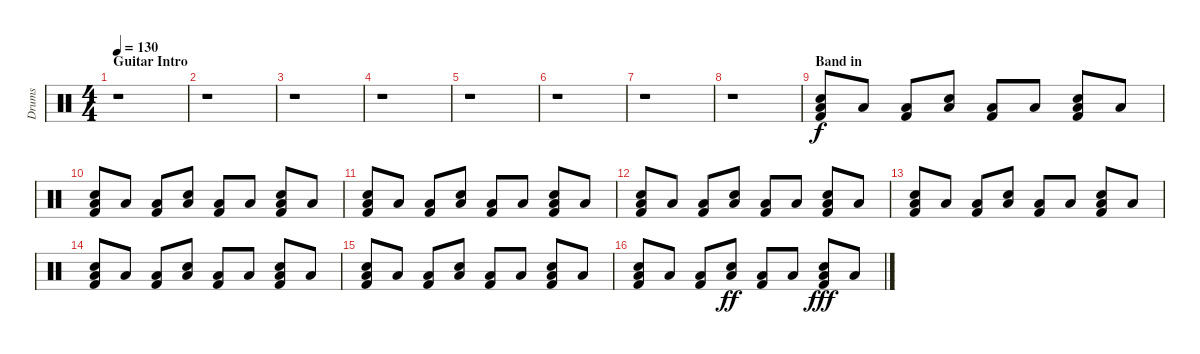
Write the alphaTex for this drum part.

\track ("Drums" "Drums") {instrument percussion}
\staff {score}
\articulation defaults
\ts (4 4)
\section ("" "Guitar Intro")
\tempo 130
\clef neutral
\ks c
r.1{dy f} |
r.1 |
r.1 |
r.1 |
r.1 |
r.1 |
r.1 |
r.1 |
\section ("" "Band in")
("Kick (hit) 2" "Low Floor Tom (hit)" "Electric Snare (hit)").8 "Low Floor Tom (hit)".8 ("Kick (hit) 2" "Low Floor Tom (hit)").8 ("Low Floor Tom (hit)" "Electric Snare (hit)").8 ("Kick (hit) 2" "Low Floor Tom (hit)").8 "Low Floor Tom (hit)".8 ("Kick (hit) 2" "Low Floor Tom (hit)" "Electric Snare (hit)").8 "Low Floor Tom (hit)".8 |
("Kick (hit) 2" "Low Floor Tom (hit)" "Electric Snare (hit)").8 "Low Floor Tom (hit)".8 ("Kick (hit) 2" "Low Floor Tom (hit)").8 ("Low Floor Tom (hit)" "Electric Snare (hit)").8 ("Kick (hit) 2" "Low Floor Tom (hit)").8 "Low Floor Tom (hit)".8 ("Kick (hit) 2" "Low Floor Tom (hit)" "Electric Snare (hit)").8 "Low Floor Tom (hit)".8 |
("Kick (hit) 2" "Low Floor Tom (hit)" "Electric Snare (hit)").8 "Low Floor Tom (hit)".8 ("Kick (hit) 2" "Low Floor Tom (hit)").8 ("Low Floor Tom (hit)" "Electric Snare (hit)").8 ("Kick (hit) 2" "Low Floor Tom (hit)").8 "Low Floor Tom (hit)".8 ("Kick (hit) 2" "Low Floor Tom (hit)" "Electric Snare (hit)").8 "Low Floor Tom (hit)".8 |
("Kick (hit) 2" "Low Floor Tom (hit)" "Electric Snare (hit)").8 "Low Floor Tom (hit)".8 ("Kick (hit) 2" "Low Floor Tom (hit)").8 ("Low Floor Tom (hit)" "Electric Snare (hit)").8 ("Kick (hit) 2" "Low Floor Tom (hit)").8 "Low Floor Tom (hit)".8 ("Kick (hit) 2" "Low Floor Tom (hit)" "Electric Snare (hit)").8 "Low Floor Tom (hit)".8 |
("Kick (hit) 2" "Low Floor Tom (hit)" "Electric Snare (hit)").8 "Low Floor Tom (hit)".8 ("Kick (hit) 2" "Low Floor Tom (hit)").8 ("Low Floor Tom (hit)" "Electric Snare (hit)").8 ("Kick (hit) 2" "Low Floor Tom (hit)").8 "Low Floor Tom (hit)".8 ("Kick (hit) 2" "Low Floor Tom (hit)" "Electric Snare (hit)").8 "Low Floor Tom (hit)".8 |
("Kick (hit) 2" "Low Floor Tom (hit)" "Electric Snare (hit)").8 "Low Floor Tom (hit)".8 ("Kick (hit) 2" "Low Floor Tom (hit)").8 ("Low Floor Tom (hit)" "Electric Snare (hit)").8 ("Kick (hit) 2" "Low Floor Tom (hit)").8 "Low Floor Tom (hit)".8 ("Kick (hit) 2" "Low Floor Tom (hit)" "Electric Snare (hit)").8 "Low Floor Tom (hit)".8 |
("Kick (hit) 2" "Low Floor Tom (hit)" "Electric Snare (hit)").8 "Low Floor Tom (hit)".8 ("Kick (hit) 2" "Low Floor Tom (hit)").8 ("Low Floor Tom (hit)" "Electric Snare (hit)").8 ("Kick (hit) 2" "Low Floor Tom (hit)").8 "Low Floor Tom (hit)".8 ("Kick (hit) 2" "Low Floor Tom (hit)" "Electric Snare (hit)").8 "Low Floor Tom (hit)".8 |
("Kick (hit) 2" "Low Floor Tom (hit)" "Electric Snare (hit)").8 "Low Floor Tom (hit)".8 ("Kick (hit) 2" "Low Floor Tom (hit)").8 ("Low Floor Tom (hit)" "Electric Snare (hit)").8{dy ff} ("Kick (hit) 2" "Low Floor Tom (hit)").8 "Low Floor Tom (hit)".8 ("Kick (hit) 2" "Low Floor Tom (hit)" "Electric Snare (hit)").8{dy fff} "Low Floor Tom (hit)".8
